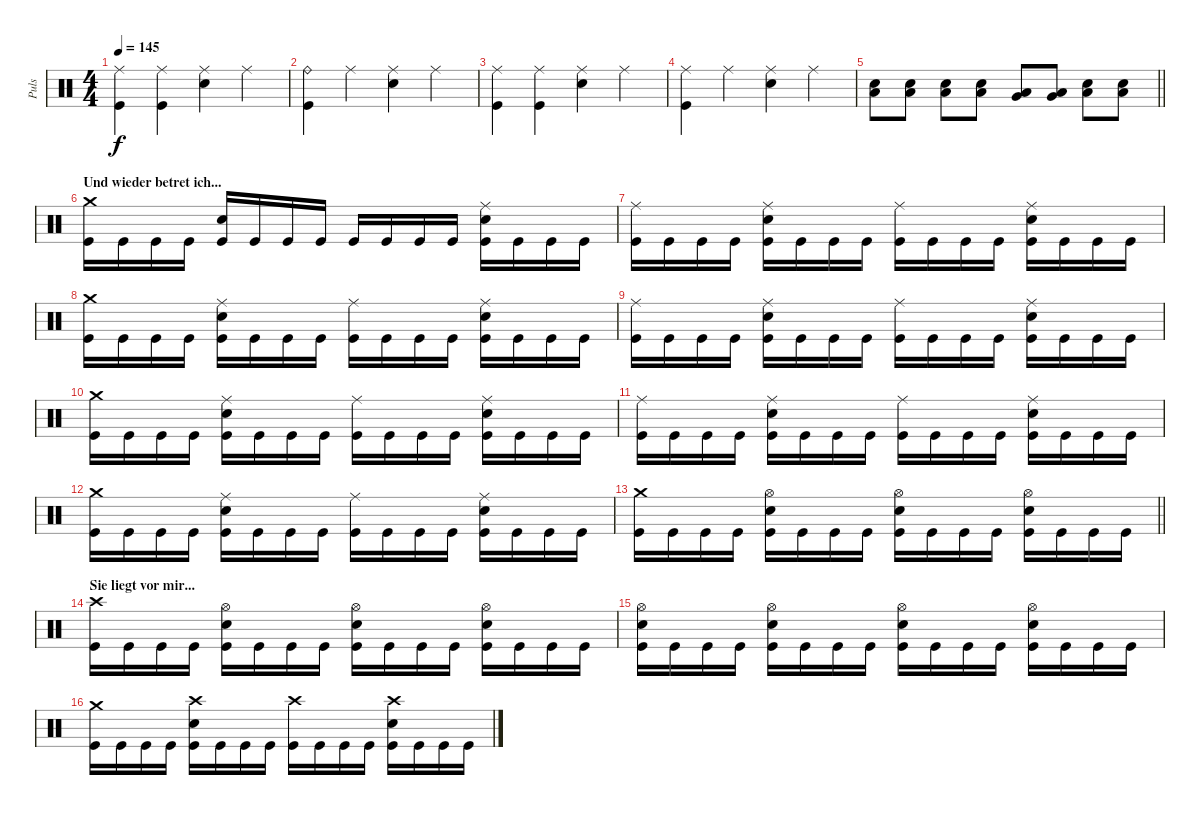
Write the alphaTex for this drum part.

\track ("Puls" "Puls") {instrument percussion}
\staff {score}
\articulation defaults
\ts (4 4)
\tempo 145
\clef neutral
\ks c
("Ride (middle)" "Kick (hit)").4{dy f} ("Ride (middle)" "Kick (hit)").4 ("Ride (middle)" "Snare (hit) 2").4 "Ride (middle)".4 |
("Ride (bell)" "Kick (hit)").4 "Ride (middle)".4 ("Ride (middle)" "Snare (hit) 2").4 "Ride (middle)".4 |
("Ride (middle)" "Kick (hit)").4 ("Ride (middle)" "Kick (hit)").4 ("Ride (middle)" "Snare (hit) 2").4 "Ride (middle)".4 |
("Ride (middle)" "Kick (hit)").4 "Ride (middle)".4 ("Ride (middle)" "Snare (hit) 2").4 "Ride (middle)".4 |
\barLineRight lightlight
("Snare (hit) 2" "Low Tom (hit)").8 ("Snare (hit) 2" "Low Tom (hit)").8 ("Snare (hit) 2" "Low Tom (hit)").8 ("Snare (hit) 2" "Low Tom (hit)").8 ("Low Tom (hit)" "Very Low Tom (hit)").8 ("Low Tom (hit)" "Very Low Tom (hit)").8 ("Snare (hit) 2" "Low Tom (hit)").8 ("Snare (hit) 2" "Low Tom (hit)").8 |
\section ("" "Und wieder betret ich...")
("Crash medium (hit)" "Kick (hit)").16 "Kick (hit)".16 "Kick (hit)".16 "Kick (hit)".16 ("Kick (hit)" "Snare (hit) 2").16 "Kick (hit)".16 "Kick (hit)".16 "Kick (hit)".16 "Kick (hit)".16 "Kick (hit)".16 "Kick (hit)".16 "Kick (hit)".16 ("Kick (hit)" "Ride (middle)" "Snare (hit) 2").16 "Kick (hit)".16 "Kick (hit)".16 "Kick (hit)".16 |
("Ride (middle)" "Kick (hit)").16 "Kick (hit)".16 "Kick (hit)".16 "Kick (hit)".16 ("Kick (hit)" "Ride (middle)" "Snare (hit) 2").16 "Kick (hit)".16 "Kick (hit)".16 "Kick (hit)".16 ("Kick (hit)" "Ride (middle)").16 "Kick (hit)".16 "Kick (hit)".16 "Kick (hit)".16 ("Kick (hit)" "Ride (middle)" "Snare (hit) 2").16 "Kick (hit)".16 "Kick (hit)".16 "Kick (hit)".16 |
("Crash medium (hit)" "Kick (hit)").16 "Kick (hit)".16 "Kick (hit)".16 "Kick (hit)".16 ("Kick (hit)" "Snare (hit) 2" "Ride (middle)").16 "Kick (hit)".16 "Kick (hit)".16 "Kick (hit)".16 ("Kick (hit)" "Ride (middle)").16 "Kick (hit)".16 "Kick (hit)".16 "Kick (hit)".16 ("Kick (hit)" "Ride (middle)" "Snare (hit) 2").16 "Kick (hit)".16 "Kick (hit)".16 "Kick (hit)".16 |
("Ride (middle)" "Kick (hit)").16 "Kick (hit)".16 "Kick (hit)".16 "Kick (hit)".16 ("Kick (hit)" "Ride (middle)" "Snare (hit) 2").16 "Kick (hit)".16 "Kick (hit)".16 "Kick (hit)".16 ("Kick (hit)" "Ride (middle)").16 "Kick (hit)".16 "Kick (hit)".16 "Kick (hit)".16 ("Kick (hit)" "Ride (middle)" "Snare (hit) 2").16 "Kick (hit)".16 "Kick (hit)".16 "Kick (hit)".16 |
("Crash medium (hit)" "Kick (hit)").16 "Kick (hit)".16 "Kick (hit)".16 "Kick (hit)".16 ("Kick (hit)" "Snare (hit) 2" "Ride (middle)").16 "Kick (hit)".16 "Kick (hit)".16 "Kick (hit)".16 ("Kick (hit)" "Ride (middle)").16 "Kick (hit)".16 "Kick (hit)".16 "Kick (hit)".16 ("Kick (hit)" "Ride (middle)" "Snare (hit) 2").16 "Kick (hit)".16 "Kick (hit)".16 "Kick (hit)".16 |
("Ride (middle)" "Kick (hit)").16 "Kick (hit)".16 "Kick (hit)".16 "Kick (hit)".16 ("Kick (hit)" "Ride (middle)" "Snare (hit) 2").16 "Kick (hit)".16 "Kick (hit)".16 "Kick (hit)".16 ("Kick (hit)" "Ride (middle)").16 "Kick (hit)".16 "Kick (hit)".16 "Kick (hit)".16 ("Kick (hit)" "Ride (middle)" "Snare (hit) 2").16 "Kick (hit)".16 "Kick (hit)".16 "Kick (hit)".16 |
("Crash medium (hit)" "Kick (hit)").16 "Kick (hit)".16 "Kick (hit)".16 "Kick (hit)".16 ("Kick (hit)" "Snare (hit) 2" "Ride (middle)").16 "Kick (hit)".16 "Kick (hit)".16 "Kick (hit)".16 ("Kick (hit)" "Ride (middle)").16 "Kick (hit)".16 "Kick (hit)".16 "Kick (hit)".16 ("Kick (hit)" "Ride (middle)" "Snare (hit) 2").16 "Kick (hit)".16 "Kick (hit)".16 "Kick (hit)".16 |
\barLineRight lightlight
("Crash medium (hit)" "Kick (hit)").16 "Kick (hit)".16 "Kick (hit)".16 "Kick (hit)".16 ("Kick (hit)" "Hi-Hat (open)" "Snare (hit) 2").16 "Kick (hit)".16 "Kick (hit)".16 "Kick (hit)".16 ("Kick (hit)" "Hi-Hat (open)" "Snare (hit) 2").16 "Kick (hit)".16 "Kick (hit)".16 "Kick (hit)".16 ("Kick (hit)" "Hi-Hat (open)" "Snare (hit) 2").16 "Kick (hit)".16 "Kick (hit)".16 "Kick (hit)".16 |
\section ("" "Sie liegt vor mir...")
("Crash high (hit)" "Kick (hit)").16 "Kick (hit)".16 "Kick (hit)".16 "Kick (hit)".16 ("Kick (hit)" "Hi-Hat (open)" "Snare (hit) 2").16 "Kick (hit)".16 "Kick (hit)".16 "Kick (hit)".16 ("Kick (hit)" "Hi-Hat (open)" "Snare (hit) 2").16 "Kick (hit)".16 "Kick (hit)".16 "Kick (hit)".16 ("Kick (hit)" "Hi-Hat (open)" "Snare (hit) 2").16 "Kick (hit)".16 "Kick (hit)".16 "Kick (hit)".16 |
("Hi-Hat (open)" "Kick (hit)" "Snare (hit) 2").16 "Kick (hit)".16 "Kick (hit)".16 "Kick (hit)".16 ("Kick (hit)" "Hi-Hat (open)" "Snare (hit) 2").16 "Kick (hit)".16 "Kick (hit)".16 "Kick (hit)".16 ("Kick (hit)" "Hi-Hat (open)" "Snare (hit) 2").16 "Kick (hit)".16 "Kick (hit)".16 "Kick (hit)".16 ("Kick (hit)" "Hi-Hat (open)" "Snare (hit) 2").16 "Kick (hit)".16 "Kick (hit)".16 "Kick (hit)".16 |
("Crash medium (hit)" "Kick (hit)").16 "Kick (hit)".16 "Kick (hit)".16 "Kick (hit)".16 ("Kick (hit)" "Crash high (hit)" "Snare (hit) 2").16 "Kick (hit)".16 "Kick (hit)".16 "Kick (hit)".16 ("Kick (hit)" "Crash high (hit)").16 "Kick (hit)".16 "Kick (hit)".16 "Kick (hit)".16 ("Kick (hit)" "Crash high (hit)" "Snare (hit) 2").16 "Kick (hit)".16 "Kick (hit)".16 "Kick (hit)".16
